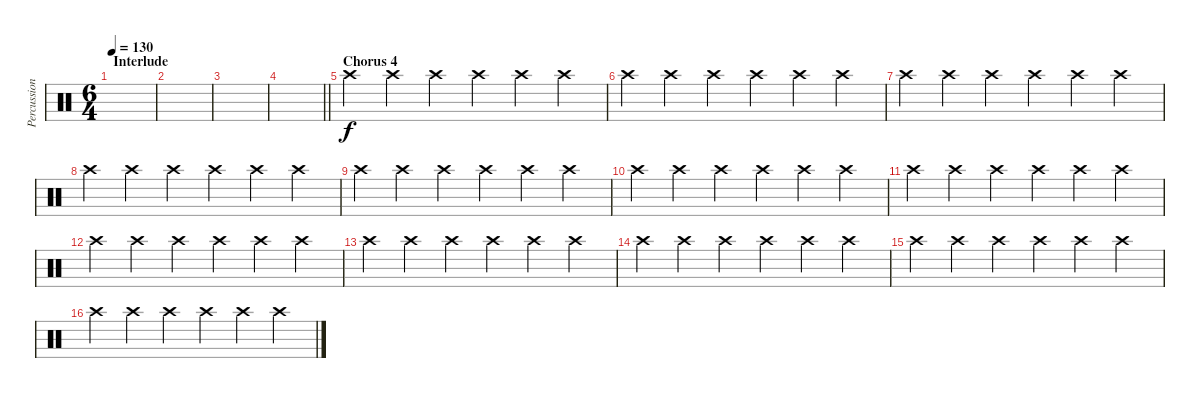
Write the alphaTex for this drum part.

\track ("Percussion" "Percussion") {instrument percussion}
\staff {score}
\articulation defaults
\ts (6 4)
\section ("" "Interlude")
\tempo 130
\clef neutral
\ks c
|
|
|
\barLineRight lightlight
|
\section ("" "Chorus 4")
"Crash high (hit)".4{dy f} "Crash high (hit)".4 "Crash high (hit)".4 "Crash high (hit)".4 "Crash high (hit)".4 "Crash high (hit)".4 |
"Crash high (hit)".4 "Crash high (hit)".4 "Crash high (hit)".4 "Crash high (hit)".4 "Crash high (hit)".4 "Crash high (hit)".4 |
"Crash high (hit)".4 "Crash high (hit)".4 "Crash high (hit)".4 "Crash high (hit)".4 "Crash high (hit)".4 "Crash high (hit)".4 |
"Crash high (hit)".4 "Crash high (hit)".4 "Crash high (hit)".4 "Crash high (hit)".4 "Crash high (hit)".4 "Crash high (hit)".4 |
"Crash high (hit)".4 "Crash high (hit)".4 "Crash high (hit)".4 "Crash high (hit)".4 "Crash high (hit)".4 "Crash high (hit)".4 |
"Crash high (hit)".4 "Crash high (hit)".4 "Crash high (hit)".4 "Crash high (hit)".4 "Crash high (hit)".4 "Crash high (hit)".4 |
"Crash high (hit)".4 "Crash high (hit)".4 "Crash high (hit)".4 "Crash high (hit)".4 "Crash high (hit)".4 "Crash high (hit)".4 |
"Crash high (hit)".4 "Crash high (hit)".4 "Crash high (hit)".4 "Crash high (hit)".4 "Crash high (hit)".4 "Crash high (hit)".4 |
"Crash high (hit)".4 "Crash high (hit)".4 "Crash high (hit)".4 "Crash high (hit)".4 "Crash high (hit)".4 "Crash high (hit)".4 |
"Crash high (hit)".4 "Crash high (hit)".4 "Crash high (hit)".4 "Crash high (hit)".4 "Crash high (hit)".4 "Crash high (hit)".4 |
"Crash high (hit)".4 "Crash high (hit)".4 "Crash high (hit)".4 "Crash high (hit)".4 "Crash high (hit)".4 "Crash high (hit)".4 |
"Crash high (hit)".4 "Crash high (hit)".4 "Crash high (hit)".4 "Crash high (hit)".4 "Crash high (hit)".4 "Crash high (hit)".4
